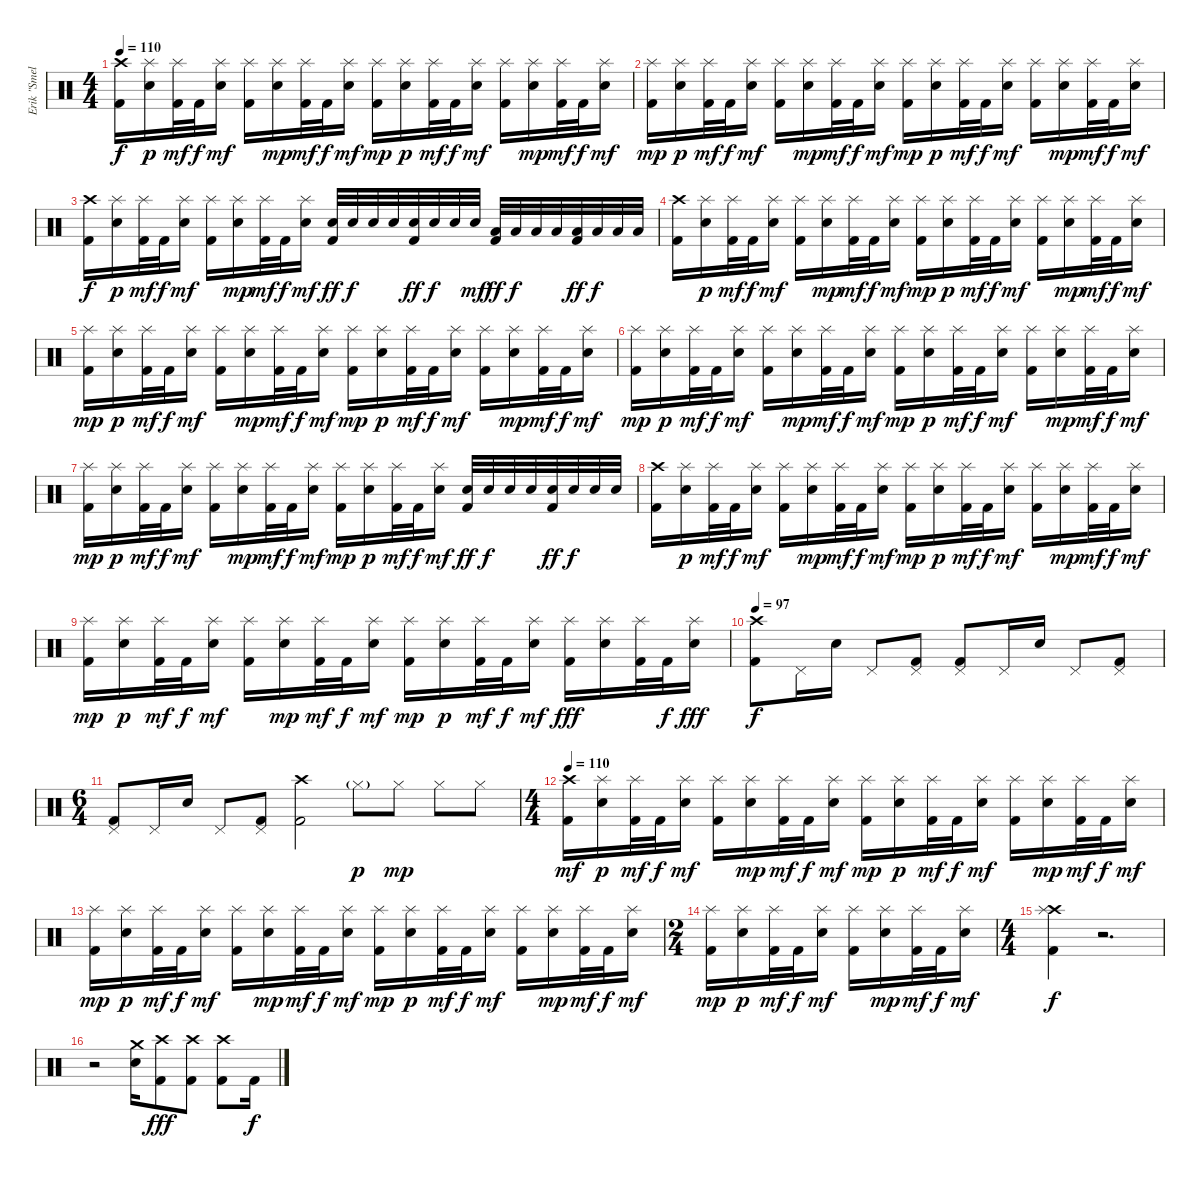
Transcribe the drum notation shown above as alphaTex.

\track ("Erik \"Smelly\" - Drums" "Erik \"Smel") {instrument percussion}
\staff {score}
\articulation defaults
\ts (4 4)
\tempo 110
\clef neutral
\ks c
("Crash high (hit)" "Kick (hit) 2").16{dy f} ("Splash (hit)" "Electric Snare (hit)").16{dy p} ("Splash (hit)" "Kick (hit) 2").32{dy mf} "Kick (hit) 2".32{dy f} ("Splash (hit)" "Electric Snare (hit)").16{dy mf} ("Splash (hit)" "Kick (hit) 2").16 ("Splash (hit)" "Electric Snare (hit)").16{dy mp} ("Splash (hit)" "Kick (hit) 2").32{dy mf} "Kick (hit) 2".32{dy f} ("Splash (hit)" "Electric Snare (hit)").16{dy mf} ("Splash (hit)" "Kick (hit) 2").16{dy mp} ("Splash (hit)" "Electric Snare (hit)").16{dy p} ("Splash (hit)" "Kick (hit) 2").32{dy mf} "Kick (hit) 2".32{dy f} ("Splash (hit)" "Electric Snare (hit)").16{dy mf} ("Splash (hit)" "Kick (hit) 2").16 ("Splash (hit)" "Electric Snare (hit)").16{dy mp} ("Splash (hit)" "Kick (hit) 2").32{dy mf} "Kick (hit) 2".32{dy f} ("Splash (hit)" "Electric Snare (hit)").16{dy mf} |
("Splash (hit)" "Kick (hit) 2").16{dy mp} ("Splash (hit)" "Electric Snare (hit)").16{dy p} ("Splash (hit)" "Kick (hit) 2").32{dy mf} "Kick (hit) 2".32{dy f} ("Splash (hit)" "Electric Snare (hit)").16{dy mf} ("Splash (hit)" "Kick (hit) 2").16 ("Splash (hit)" "Electric Snare (hit)").16{dy mp} ("Splash (hit)" "Kick (hit) 2").32{dy mf} "Kick (hit) 2".32{dy f} ("Splash (hit)" "Electric Snare (hit)").16{dy mf} ("Splash (hit)" "Kick (hit) 2").16{dy mp} ("Splash (hit)" "Electric Snare (hit)").16{dy p} ("Splash (hit)" "Kick (hit) 2").32{dy mf} "Kick (hit) 2".32{dy f} ("Splash (hit)" "Electric Snare (hit)").16{dy mf} ("Splash (hit)" "Kick (hit) 2").16 ("Splash (hit)" "Electric Snare (hit)").16{dy mp} ("Splash (hit)" "Kick (hit) 2").32{dy mf} "Kick (hit) 2".32{dy f} ("Splash (hit)" "Electric Snare (hit)").16{dy mf} |
("Crash high (hit)" "Kick (hit) 2").16{dy f} ("Splash (hit)" "Electric Snare (hit)").16{dy p} ("Splash (hit)" "Kick (hit) 2").32{dy mf} "Kick (hit) 2".32{dy f} ("Splash (hit)" "Electric Snare (hit)").16{dy mf} ("Splash (hit)" "Kick (hit) 2").16 ("Splash (hit)" "Electric Snare (hit)").16{dy mp} ("Splash (hit)" "Kick (hit) 2").32{dy mf} "Kick (hit) 2".32{dy f} ("Splash (hit)" "Electric Snare (hit)").16{dy mf} ("Electric Snare (hit)" "Kick (hit) 2").32{dy ff} "Electric Snare (hit)".32{dy f} "Electric Snare (hit)".32 "Electric Snare (hit)".32 ("Electric Snare (hit)" "Kick (hit) 2").32{dy ff} "Electric Snare (hit)".32{dy f} "Electric Snare (hit)".32 "Electric Snare (hit)".32{dy mf} ("Low Tom (hit)" "Kick (hit) 2").32{dy ff} "Low Tom (hit)".32{dy f} "Low Tom (hit)".32 "Low Tom (hit)".32 ("Low Tom (hit)" "Kick (hit) 2").32{dy ff} "Low Tom (hit)".32{dy f} "Low Tom (hit)".32 "Low Tom (hit)".32 |
("Crash high (hit)" "Kick (hit) 2").16 ("Splash (hit)" "Electric Snare (hit)").16{dy p} ("Splash (hit)" "Kick (hit) 2").32{dy mf} "Kick (hit) 2".32{dy f} ("Splash (hit)" "Electric Snare (hit)").16{dy mf} ("Splash (hit)" "Kick (hit) 2").16 ("Splash (hit)" "Electric Snare (hit)").16{dy mp} ("Splash (hit)" "Kick (hit) 2").32{dy mf} "Kick (hit) 2".32{dy f} ("Splash (hit)" "Electric Snare (hit)").16{dy mf} ("Splash (hit)" "Kick (hit) 2").16{dy mp} ("Splash (hit)" "Electric Snare (hit)").16{dy p} ("Splash (hit)" "Kick (hit) 2").32{dy mf} "Kick (hit) 2".32{dy f} ("Splash (hit)" "Electric Snare (hit)").16{dy mf} ("Splash (hit)" "Kick (hit) 2").16 ("Splash (hit)" "Electric Snare (hit)").16{dy mp} ("Splash (hit)" "Kick (hit) 2").32{dy mf} "Kick (hit) 2".32{dy f} ("Splash (hit)" "Electric Snare (hit)").16{dy mf} |
("Splash (hit)" "Kick (hit) 2").16{dy mp} ("Splash (hit)" "Electric Snare (hit)").16{dy p} ("Splash (hit)" "Kick (hit) 2").32{dy mf} "Kick (hit) 2".32{dy f} ("Splash (hit)" "Electric Snare (hit)").16{dy mf} ("Splash (hit)" "Kick (hit) 2").16 ("Splash (hit)" "Electric Snare (hit)").16{dy mp} ("Splash (hit)" "Kick (hit) 2").32{dy mf} "Kick (hit) 2".32{dy f} ("Splash (hit)" "Electric Snare (hit)").16{dy mf} ("Splash (hit)" "Kick (hit) 2").16{dy mp} ("Splash (hit)" "Electric Snare (hit)").16{dy p} ("Splash (hit)" "Kick (hit) 2").32{dy mf} "Kick (hit) 2".32{dy f} ("Splash (hit)" "Electric Snare (hit)").16{dy mf} ("Splash (hit)" "Kick (hit) 2").16 ("Splash (hit)" "Electric Snare (hit)").16{dy mp} ("Splash (hit)" "Kick (hit) 2").32{dy mf} "Kick (hit) 2".32{dy f} ("Splash (hit)" "Electric Snare (hit)").16{dy mf} |
("Splash (hit)" "Kick (hit) 2").16{dy mp} ("Splash (hit)" "Electric Snare (hit)").16{dy p} ("Splash (hit)" "Kick (hit) 2").32{dy mf} "Kick (hit) 2".32{dy f} ("Splash (hit)" "Electric Snare (hit)").16{dy mf} ("Splash (hit)" "Kick (hit) 2").16 ("Splash (hit)" "Electric Snare (hit)").16{dy mp} ("Splash (hit)" "Kick (hit) 2").32{dy mf} "Kick (hit) 2".32{dy f} ("Splash (hit)" "Electric Snare (hit)").16{dy mf} ("Splash (hit)" "Kick (hit) 2").16{dy mp} ("Splash (hit)" "Electric Snare (hit)").16{dy p} ("Splash (hit)" "Kick (hit) 2").32{dy mf} "Kick (hit) 2".32{dy f} ("Splash (hit)" "Electric Snare (hit)").16{dy mf} ("Splash (hit)" "Kick (hit) 2").16 ("Splash (hit)" "Electric Snare (hit)").16{dy mp} ("Splash (hit)" "Kick (hit) 2").32{dy mf} "Kick (hit) 2".32{dy f} ("Splash (hit)" "Electric Snare (hit)").16{dy mf} |
("Splash (hit)" "Kick (hit) 2").16{dy mp} ("Splash (hit)" "Electric Snare (hit)").16{dy p} ("Splash (hit)" "Kick (hit) 2").32{dy mf} "Kick (hit) 2".32{dy f} ("Splash (hit)" "Electric Snare (hit)").16{dy mf} ("Splash (hit)" "Kick (hit) 2").16 ("Splash (hit)" "Electric Snare (hit)").16{dy mp} ("Splash (hit)" "Kick (hit) 2").32{dy mf} "Kick (hit) 2".32{dy f} ("Splash (hit)" "Electric Snare (hit)").16{dy mf} ("Splash (hit)" "Kick (hit) 2").16{dy mp} ("Splash (hit)" "Electric Snare (hit)").16{dy p} ("Splash (hit)" "Kick (hit) 2").32{dy mf} "Kick (hit) 2".32{dy f} ("Splash (hit)" "Electric Snare (hit)").16{dy mf} ("Electric Snare (hit)" "Kick (hit) 2").32{dy ff} "Electric Snare (hit)".32{dy f} "Electric Snare (hit)".32 "Electric Snare (hit)".32 ("Electric Snare (hit)" "Kick (hit) 2").32{dy ff} "Electric Snare (hit)".32{dy f} "Electric Snare (hit)".32 "Electric Snare (hit)".32 |
("Crash high (hit)" "Kick (hit) 2").16 ("Splash (hit)" "Electric Snare (hit)").16{dy p} ("Splash (hit)" "Kick (hit) 2").32{dy mf} "Kick (hit) 2".32{dy f} ("Splash (hit)" "Electric Snare (hit)").16{dy mf} ("Splash (hit)" "Kick (hit) 2").16 ("Splash (hit)" "Electric Snare (hit)").16{dy mp} ("Splash (hit)" "Kick (hit) 2").32{dy mf} "Kick (hit) 2".32{dy f} ("Splash (hit)" "Electric Snare (hit)").16{dy mf} ("Splash (hit)" "Kick (hit) 2").16{dy mp} ("Splash (hit)" "Electric Snare (hit)").16{dy p} ("Splash (hit)" "Kick (hit) 2").32{dy mf} "Kick (hit) 2".32{dy f} ("Splash (hit)" "Electric Snare (hit)").16{dy mf} ("Splash (hit)" "Kick (hit) 2").16 ("Splash (hit)" "Electric Snare (hit)").16{dy mp} ("Splash (hit)" "Kick (hit) 2").32{dy mf} "Kick (hit) 2".32{dy f} ("Splash (hit)" "Electric Snare (hit)").16{dy mf} |
("Splash (hit)" "Kick (hit) 2").16{dy mp} ("Splash (hit)" "Electric Snare (hit)").16{dy p} ("Splash (hit)" "Kick (hit) 2").32{dy mf} "Kick (hit) 2".32{dy f} ("Splash (hit)" "Electric Snare (hit)").16{dy mf} ("Splash (hit)" "Kick (hit) 2").16 ("Splash (hit)" "Electric Snare (hit)").16{dy mp} ("Splash (hit)" "Kick (hit) 2").32{dy mf} "Kick (hit) 2".32{dy f} ("Splash (hit)" "Electric Snare (hit)").16{dy mf} ("Splash (hit)" "Kick (hit) 2").16{dy mp} ("Splash (hit)" "Electric Snare (hit)").16{dy p} ("Splash (hit)" "Kick (hit) 2").32{dy mf} "Kick (hit) 2".32{dy f} ("Splash (hit)" "Electric Snare (hit)").16{dy mf} ("Splash (hit)" "Kick (hit) 2").16{dy fff} ("Splash (hit)" "Electric Snare (hit)").16 ("Splash (hit)" "Kick (hit) 2").32 "Kick (hit) 2".32{dy f} ("Splash (hit)" "Electric Snare (hit)").16{dy fff} |
\tempo 97
("Crash high (hit)" "Kick (hit) 2").8{dy f} "Pedal Hi-Hat (hit)".16 "Electric Snare (hit)".16 "Pedal Hi-Hat (hit)".8 ("Pedal Hi-Hat (hit)" "Kick (hit) 2").8 ("Pedal Hi-Hat (hit)" "Kick (hit) 2").8 "Pedal Hi-Hat (hit)".16 "Electric Snare (hit)".16 "Pedal Hi-Hat (hit)".8 ("Pedal Hi-Hat (hit)" "Kick (hit) 2").8 |
\ts (6 4)
("Pedal Hi-Hat (hit)" "Kick (hit) 2").8 "Pedal Hi-Hat (hit)".16 "Electric Snare (hit)".16 "Pedal Hi-Hat (hit)".8 ("Pedal Hi-Hat (hit)" "Kick (hit) 2").8 ("Crash high (hit)" "Kick (hit) 2").2 "Hi-Hat (closed)"{g}.8{dy p} "Hi-Hat (closed)".8{dy mp} "Hi-Hat (closed)".8 "Hi-Hat (closed)".8 |
\ts (4 4)
\tempo 110
("Crash high (hit)" "Kick (hit) 2").16{dy mf} ("Splash (hit)" "Electric Snare (hit)").16{dy p} ("Splash (hit)" "Kick (hit) 2").32{dy mf} "Kick (hit) 2".32{dy f} ("Splash (hit)" "Electric Snare (hit)").16{dy mf} ("Splash (hit)" "Kick (hit) 2").16 ("Splash (hit)" "Electric Snare (hit)").16{dy mp} ("Splash (hit)" "Kick (hit) 2").32{dy mf} "Kick (hit) 2".32{dy f} ("Splash (hit)" "Electric Snare (hit)").16{dy mf} ("Splash (hit)" "Kick (hit) 2").16{dy mp} ("Splash (hit)" "Electric Snare (hit)").16{dy p} ("Splash (hit)" "Kick (hit) 2").32{dy mf} "Kick (hit) 2".32{dy f} ("Splash (hit)" "Electric Snare (hit)").16{dy mf} ("Splash (hit)" "Kick (hit) 2").16 ("Splash (hit)" "Electric Snare (hit)").16{dy mp} ("Splash (hit)" "Kick (hit) 2").32{dy mf} "Kick (hit) 2".32{dy f} ("Splash (hit)" "Electric Snare (hit)").16{dy mf} |
("Splash (hit)" "Kick (hit) 2").16{dy mp} ("Splash (hit)" "Electric Snare (hit)").16{dy p} ("Splash (hit)" "Kick (hit) 2").32{dy mf} "Kick (hit) 2".32{dy f} ("Splash (hit)" "Electric Snare (hit)").16{dy mf} ("Splash (hit)" "Kick (hit) 2").16 ("Splash (hit)" "Electric Snare (hit)").16{dy mp} ("Splash (hit)" "Kick (hit) 2").32{dy mf} "Kick (hit) 2".32{dy f} ("Splash (hit)" "Electric Snare (hit)").16{dy mf} ("Splash (hit)" "Kick (hit) 2").16{dy mp} ("Splash (hit)" "Electric Snare (hit)").16{dy p} ("Splash (hit)" "Kick (hit) 2").32{dy mf} "Kick (hit) 2".32{dy f} ("Splash (hit)" "Electric Snare (hit)").16{dy mf} ("Splash (hit)" "Kick (hit) 2").16 ("Splash (hit)" "Electric Snare (hit)").16{dy mp} ("Splash (hit)" "Kick (hit) 2").32{dy mf} "Kick (hit) 2".32{dy f} ("Splash (hit)" "Electric Snare (hit)").16{dy mf} |
\ts (2 4)
("Splash (hit)" "Kick (hit) 2").16{dy mp} ("Splash (hit)" "Electric Snare (hit)").16{dy p} ("Splash (hit)" "Kick (hit) 2").32{dy mf} "Kick (hit) 2".32{dy f} ("Splash (hit)" "Electric Snare (hit)").16{dy mf} ("Splash (hit)" "Kick (hit) 2").16 ("Splash (hit)" "Electric Snare (hit)").16{dy mp} ("Splash (hit)" "Kick (hit) 2").32{dy mf} "Kick (hit) 2".32{dy f} ("Splash (hit)" "Electric Snare (hit)").16{dy mf} |
\ts (4 4)
("Crash high (hit)" "Splash (hit)" "Kick (hit) 2").4{dy f} r.2{d} |
r.2 ("Crash medium (hit)" "Electric Snare (hit)").16 ("Crash high (hit)" "Kick (hit) 2").8{dy fff} ("Crash high (hit)" "Kick (hit) 2").8 ("Crash high (hit)" "Kick (hit) 2").8 "Kick (hit) 2".16{dy f}
